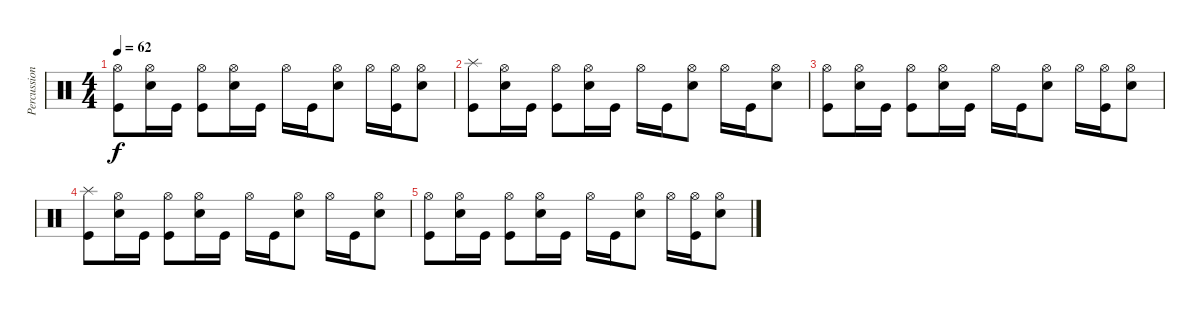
\track ("Percussion" "Percussion") {instrument percussion}
\staff {score}
\articulation defaults
\ts (4 4)
\tempo 62
\clef neutral
\ks c
("Hi-Hat (open)" "Kick (hit)").8{dy f} ("Hi-Hat (open)" "Electric Snare (hit)").16 "Kick (hit)".16 ("Hi-Hat (open)" "Kick (hit)").8 ("Hi-Hat (open)" "Electric Snare (hit)").16 "Kick (hit)".16 "Hi-Hat (open)".16 "Kick (hit)".16 ("Hi-Hat (open)" "Electric Snare (hit)").8 "Hi-Hat (open)".16 ("Hi-Hat (open)" "Kick (hit)").16 ("Hi-Hat (open)" "Electric Snare (hit)").8 |
("Splash (hit)" "Kick (hit)").8 ("Hi-Hat (open)" "Electric Snare (hit)").16 "Kick (hit)".16 ("Hi-Hat (open)" "Kick (hit)").8 ("Hi-Hat (open)" "Electric Snare (hit)").16 "Kick (hit)".16 "Hi-Hat (open)".16 "Kick (hit)".16 ("Hi-Hat (open)" "Electric Snare (hit)").8 "Hi-Hat (open)".16 "Kick (hit)".16 ("Hi-Hat (open)" "Electric Snare (hit)").8 |
("Hi-Hat (open)" "Kick (hit)").8 ("Hi-Hat (open)" "Electric Snare (hit)").16 "Kick (hit)".16 ("Hi-Hat (open)" "Kick (hit)").8 ("Hi-Hat (open)" "Electric Snare (hit)").16 "Kick (hit)".16 "Hi-Hat (open)".16 "Kick (hit)".16 ("Hi-Hat (open)" "Electric Snare (hit)").8 "Hi-Hat (open)".16 ("Hi-Hat (open)" "Kick (hit)").16 ("Hi-Hat (open)" "Electric Snare (hit)").8 |
("Splash (hit)" "Kick (hit)").8 ("Hi-Hat (open)" "Electric Snare (hit)").16 "Kick (hit)".16 ("Hi-Hat (open)" "Kick (hit)").8 ("Hi-Hat (open)" "Electric Snare (hit)").16 "Kick (hit)".16 "Hi-Hat (open)".16 "Kick (hit)".16 ("Hi-Hat (open)" "Electric Snare (hit)").8 "Hi-Hat (open)".16 "Kick (hit)".16 ("Hi-Hat (open)" "Electric Snare (hit)").8 |
("Hi-Hat (open)" "Kick (hit)").8 ("Hi-Hat (open)" "Electric Snare (hit)").16 "Kick (hit)".16 ("Hi-Hat (open)" "Kick (hit)").8 ("Hi-Hat (open)" "Electric Snare (hit)").16 "Kick (hit)".16 "Hi-Hat (open)".16 "Kick (hit)".16 ("Hi-Hat (open)" "Electric Snare (hit)").8 "Hi-Hat (open)".16 ("Hi-Hat (open)" "Kick (hit)").16 ("Hi-Hat (open)" "Electric Snare (hit)").8
